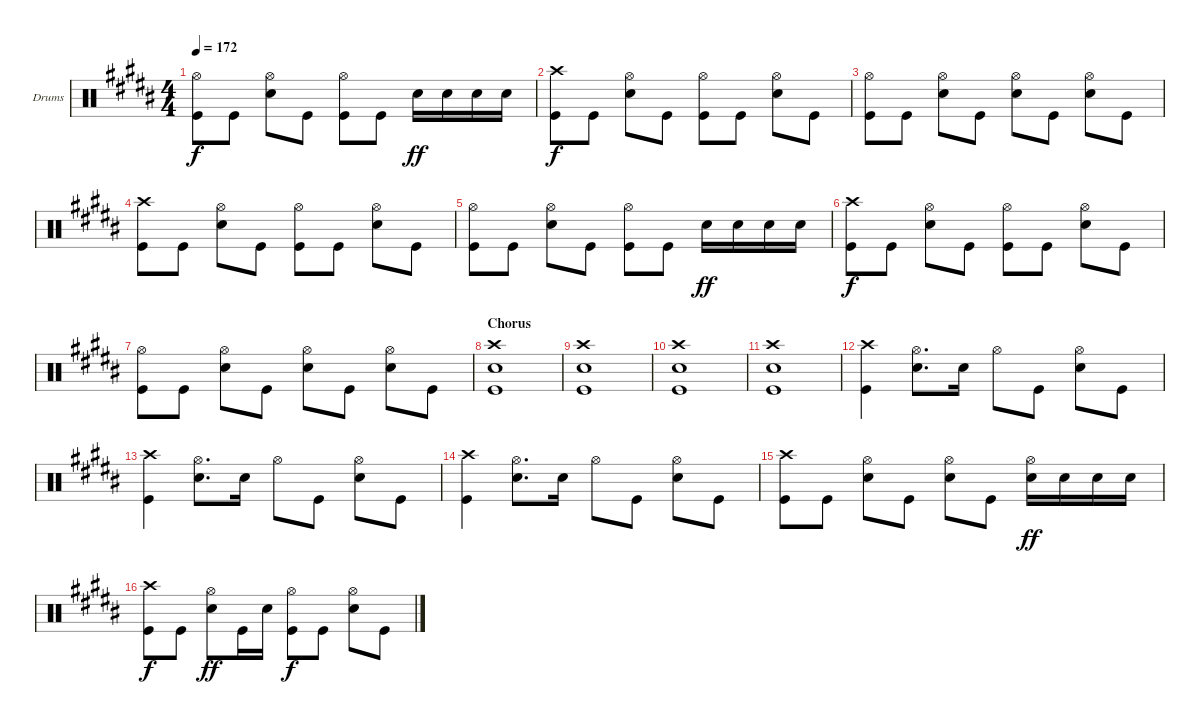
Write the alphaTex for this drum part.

\defaultSystemsLayout 4
\bracketExtendMode groupsimilarinstruments
\firstSystemTrackNameOrientation horizontal
\otherSystemsTrackNameOrientation horizontal
\track ("Drumkit" "Drums") {instrument percussion}
\staff {score}
\articulation defaults
\ts (4 4)
\tempo 172
\clef neutral
\scale
1.07314
\ks b
("Hi-Hat (open)" "Kick (hit)").8{dy f} "Kick (hit)".8 ("Hi-Hat (open)" "Snare (hit) 2").8 "Kick (hit)".8 ("Hi-Hat (open)" "Kick (hit)").8 "Kick (hit)".8 "Snare (hit) 2".16{dy ff} "Snare (hit) 2".16 "Snare (hit) 2".16 "Snare (hit) 2".16 |
\scale
0.92686 ("Crash high (hit)" "Kick (hit)").8{dy f} "Kick (hit)".8 ("Hi-Hat (open)" "Snare (hit) 2").8 "Kick (hit)".8 ("Hi-Hat (open)" "Kick (hit)").8 "Kick (hit)".8 ("Hi-Hat (open)" "Snare (hit) 2").8 "Kick (hit)".8 |
\scale
1.07314 ("Hi-Hat (open)" "Kick (hit)").8 "Kick (hit)".8 ("Hi-Hat (open)" "Snare (hit) 2").8 "Kick (hit)".8 ("Hi-Hat (open)" "Snare (hit) 2").8 "Kick (hit)".8 ("Hi-Hat (open)" "Snare (hit) 2").8 "Kick (hit)".8 |
\scale
0.92686 ("Crash high (hit)" "Kick (hit)").8 "Kick (hit)".8 ("Hi-Hat (open)" "Snare (hit) 2").8 "Kick (hit)".8 ("Hi-Hat (open)" "Kick (hit)").8 "Kick (hit)".8 ("Hi-Hat (open)" "Snare (hit) 2").8 "Kick (hit)".8 |
\scale
1.07314 ("Hi-Hat (open)" "Kick (hit)").8 "Kick (hit)".8 ("Hi-Hat (open)" "Snare (hit) 2").8 "Kick (hit)".8 ("Hi-Hat (open)" "Kick (hit)").8 "Kick (hit)".8 "Snare (hit) 2".16{dy ff} "Snare (hit) 2".16 "Snare (hit) 2".16 "Snare (hit) 2".16 |
\scale
0.92686 ("Crash high (hit)" "Kick (hit)").8{dy f} "Kick (hit)".8 ("Hi-Hat (open)" "Snare (hit) 2").8 "Kick (hit)".8 ("Hi-Hat (open)" "Kick (hit)").8 "Kick (hit)".8 ("Hi-Hat (open)" "Snare (hit) 2").8 "Kick (hit)".8 |
\scale
1.07314 ("Hi-Hat (open)" "Kick (hit)").8 "Kick (hit)".8 ("Hi-Hat (open)" "Snare (hit) 2").8 "Kick (hit)".8 ("Hi-Hat (open)" "Snare (hit) 2").8 "Kick (hit)".8 ("Hi-Hat (open)" "Snare (hit) 2").8 "Kick (hit)".8 |
\section ("" "Chorus")
\scale
0.92686 ("Crash high (hit)" "Snare (hit) 2" "Kick (hit)").1 |
\scale
1.07314 ("Crash high (hit)" "Snare (hit) 2" "Kick (hit)").1 |
\scale
0.92686 ("Crash high (hit)" "Snare (hit) 2" "Kick (hit)").1 |
\scale
1.07314 ("Crash high (hit)" "Snare (hit) 2" "Kick (hit)").1 |
\scale
0.92686 ("Crash high (hit)" "Kick (hit)").4 ("Hi-Hat (open)" "Snare (hit) 2").8{d} "Snare (hit) 2".16 "Hi-Hat (open)".8 "Kick (hit)".8 ("Hi-Hat (open)" "Snare (hit) 2").8 "Kick (hit)".8 |
\scale
1.07314 ("Crash high (hit)" "Kick (hit)").4 ("Hi-Hat (open)" "Snare (hit) 2").8{d} "Snare (hit) 2".16 "Hi-Hat (open)".8 "Kick (hit)".8 ("Hi-Hat (open)" "Snare (hit) 2").8 "Kick (hit)".8 |
\scale
0.92686 ("Crash high (hit)" "Kick (hit)").4 ("Hi-Hat (open)" "Snare (hit) 2").8{d} "Snare (hit) 2".16 "Hi-Hat (open)".8 "Kick (hit)".8 ("Hi-Hat (open)" "Snare (hit) 2").8 "Kick (hit)".8 |
\scale
1.07314 ("Crash high (hit)" "Kick (hit)").8 "Kick (hit)".8 ("Hi-Hat (open)" "Snare (hit) 2").8 "Kick (hit)".8 ("Hi-Hat (open)" "Snare (hit) 2").8 "Kick (hit)".8 ("Hi-Hat (open)" "Snare (hit) 2").16{dy ff} "Snare (hit) 2".16 "Snare (hit) 2".16 "Snare (hit) 2".16 |
\scale
0.92686 ("Crash high (hit)" "Kick (hit)").8{dy f} "Kick (hit)".8 ("Hi-Hat (open)" "Snare (hit) 2").8{dy ff} "Kick (hit)".16 "Snare (hit) 2".16 ("Hi-Hat (open)" "Kick (hit)").8{dy f} "Kick (hit)".8 ("Hi-Hat (open)" "Snare (hit) 2").8 "Kick (hit)".8
